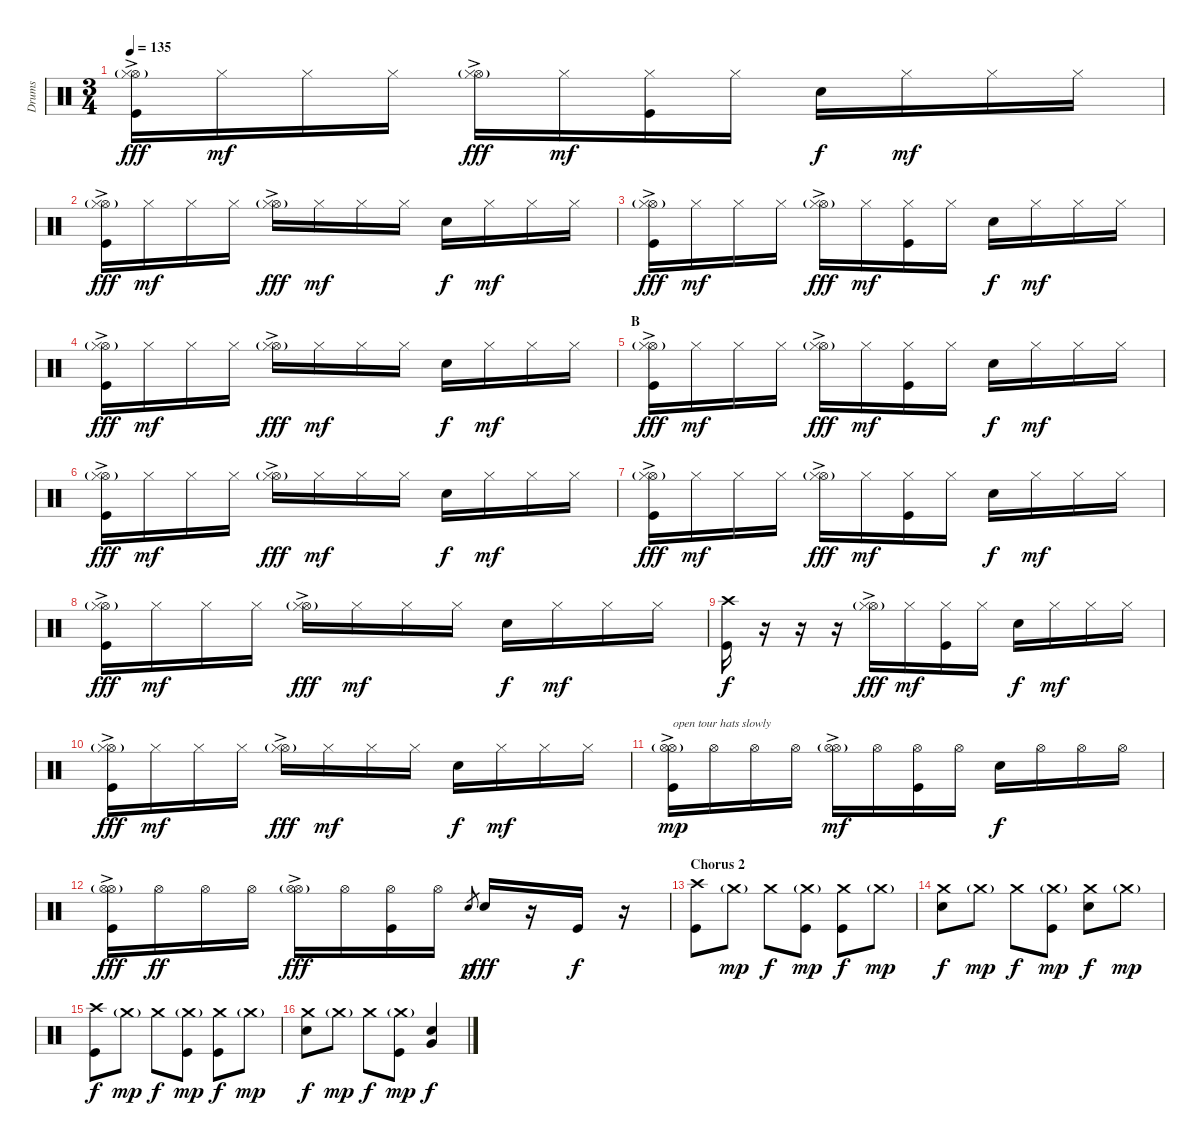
\track ("Drums" "Drums") {instrument percussion}
\staff {score}
\articulation defaults
\ts (3 4)
\tempo 135
\clef neutral
\ks c
("Hi-Hat (open)"{g} "Hi-Hat (closed)"{ac} "Kick (hit)").16{dy fff} "Hi-Hat (closed)".16{dy mf} "Hi-Hat (closed)".16 "Hi-Hat (closed)".16 ("Hi-Hat (open)"{g} "Hi-Hat (closed)"{ac}).16{dy fff} "Hi-Hat (closed)".16{dy mf} ("Hi-Hat (closed)" "Kick (hit)").16 "Hi-Hat (closed)".16 "Snare (hit) 2".16{dy f} "Hi-Hat (closed)".16{dy mf} "Hi-Hat (closed)".16 "Hi-Hat (closed)".16 |
("Hi-Hat (open)"{g} "Hi-Hat (closed)"{ac} "Kick (hit)").16{dy fff} "Hi-Hat (closed)".16{dy mf} "Hi-Hat (closed)".16 "Hi-Hat (closed)".16 ("Hi-Hat (open)"{g} "Hi-Hat (closed)"{ac}).16{dy fff} "Hi-Hat (closed)".16{dy mf} "Hi-Hat (closed)".16 "Hi-Hat (closed)".16 "Snare (hit) 2".16{dy f} "Hi-Hat (closed)".16{dy mf} "Hi-Hat (closed)".16 "Hi-Hat (closed)".16 |
("Hi-Hat (open)"{g} "Hi-Hat (closed)"{ac} "Kick (hit)").16{dy fff} "Hi-Hat (closed)".16{dy mf} "Hi-Hat (closed)".16 "Hi-Hat (closed)".16 ("Hi-Hat (open)"{g} "Hi-Hat (closed)"{ac}).16{dy fff} "Hi-Hat (closed)".16{dy mf} ("Hi-Hat (closed)" "Kick (hit)").16 "Hi-Hat (closed)".16 "Snare (hit) 2".16{dy f} "Hi-Hat (closed)".16{dy mf} "Hi-Hat (closed)".16 "Hi-Hat (closed)".16 |
("Hi-Hat (open)"{g} "Hi-Hat (closed)"{ac} "Kick (hit)").16{dy fff} "Hi-Hat (closed)".16{dy mf} "Hi-Hat (closed)".16 "Hi-Hat (closed)".16 ("Hi-Hat (open)"{g} "Hi-Hat (closed)"{ac}).16{dy fff} "Hi-Hat (closed)".16{dy mf} "Hi-Hat (closed)".16 "Hi-Hat (closed)".16 "Snare (hit) 2".16{dy f} "Hi-Hat (closed)".16{dy mf} "Hi-Hat (closed)".16 "Hi-Hat (closed)".16 |
\section ("" "B")
("Hi-Hat (open)"{g} "Hi-Hat (closed)"{ac} "Kick (hit)").16{dy fff} "Hi-Hat (closed)".16{dy mf} "Hi-Hat (closed)".16 "Hi-Hat (closed)".16 ("Hi-Hat (open)"{g} "Hi-Hat (closed)"{ac}).16{dy fff} "Hi-Hat (closed)".16{dy mf} ("Hi-Hat (closed)" "Kick (hit)").16 "Hi-Hat (closed)".16 "Snare (hit) 2".16{dy f} "Hi-Hat (closed)".16{dy mf} "Hi-Hat (closed)".16 "Hi-Hat (closed)".16 |
("Hi-Hat (open)"{g} "Hi-Hat (closed)"{ac} "Kick (hit)").16{dy fff} "Hi-Hat (closed)".16{dy mf} "Hi-Hat (closed)".16 "Hi-Hat (closed)".16 ("Hi-Hat (open)"{g} "Hi-Hat (closed)"{ac}).16{dy fff} "Hi-Hat (closed)".16{dy mf} "Hi-Hat (closed)".16 "Hi-Hat (closed)".16 "Snare (hit) 2".16{dy f} "Hi-Hat (closed)".16{dy mf} "Hi-Hat (closed)".16 "Hi-Hat (closed)".16 |
("Hi-Hat (open)"{g} "Hi-Hat (closed)"{ac} "Kick (hit)").16{dy fff} "Hi-Hat (closed)".16{dy mf} "Hi-Hat (closed)".16 "Hi-Hat (closed)".16 ("Hi-Hat (open)"{g} "Hi-Hat (closed)"{ac}).16{dy fff} "Hi-Hat (closed)".16{dy mf} ("Hi-Hat (closed)" "Kick (hit)").16 "Hi-Hat (closed)".16 "Snare (hit) 2".16{dy f} "Hi-Hat (closed)".16{dy mf} "Hi-Hat (closed)".16 "Hi-Hat (closed)".16 |
("Hi-Hat (open)"{g} "Hi-Hat (closed)"{ac} "Kick (hit)").16{dy fff} "Hi-Hat (closed)".16{dy mf} "Hi-Hat (closed)".16 "Hi-Hat (closed)".16 ("Hi-Hat (open)"{g} "Hi-Hat (closed)"{ac}).16{dy fff} "Hi-Hat (closed)".16{dy mf} "Hi-Hat (closed)".16 "Hi-Hat (closed)".16 "Snare (hit) 2".16{dy f} "Hi-Hat (closed)".16{dy mf} "Hi-Hat (closed)".16 "Hi-Hat (closed)".16 |
("Crash high (hit)" "Kick (hit)").16{dy f} r.16 r.16 r.16 ("Hi-Hat (open)"{g} "Hi-Hat (closed)"{ac}).16{dy fff} "Hi-Hat (closed)".16{dy mf} ("Hi-Hat (closed)" "Kick (hit)").16 "Hi-Hat (closed)".16 "Snare (hit) 2".16{dy f} "Hi-Hat (closed)".16{dy mf} "Hi-Hat (closed)".16 "Hi-Hat (closed)".16 |
("Hi-Hat (open)"{g} "Hi-Hat (closed)"{ac} "Kick (hit)").16{dy fff} "Hi-Hat (closed)".16{dy mf} "Hi-Hat (closed)".16 "Hi-Hat (closed)".16 ("Hi-Hat (open)"{g} "Hi-Hat (closed)"{ac}).16{dy fff} "Hi-Hat (closed)".16{dy mf} "Hi-Hat (closed)".16 "Hi-Hat (closed)".16 "Snare (hit) 2".16{dy f} "Hi-Hat (closed)".16{dy mf} "Hi-Hat (closed)".16 "Hi-Hat (closed)".16 |
("Hi-Hat (open)"{g} "Hi-Hat (open)"{ac} "Kick (hit)").16{txt "open tour hats slowly" dy mp} "Hi-Hat (open)".16 "Hi-Hat (open)".16 "Hi-Hat (open)".16 ("Hi-Hat (open)"{g} "Hi-Hat (open)"{ac}).16{dy mf} "Hi-Hat (open)".16 ("Hi-Hat (open)" "Kick (hit)").16 "Hi-Hat (open)".16 "Snare (hit) 2".16{dy f} "Hi-Hat (open)".16 "Hi-Hat (open)".16 "Hi-Hat (open)".16 |
("Hi-Hat (open)"{g} "Hi-Hat (open)"{ac} "Kick (hit)").16{dy fff} "Hi-Hat (open)".16{dy ff} "Hi-Hat (open)".16 "Hi-Hat (open)".16 ("Hi-Hat (open)"{g} "Hi-Hat (open)"{ac}).16{dy fff} "Hi-Hat (open)".16 ("Hi-Hat (open)" "Kick (hit)").16 "Hi-Hat (open)".16 "Snare (hit) 2".8{gr dy p} "Snare (hit) 2".16{dy fff} r.16 "Kick (hit)".16{dy f} r.16 |
\section ("" "Chorus 2")
("Crash high (hit)" "Kick (hit)").8 "Crash medium (hit)"{g}.8{dy mp} "Crash medium (hit)".8{dy f} ("Crash medium (hit)"{g} "Kick (hit)").8{dy mp} ("Crash medium (hit)" "Kick (hit)").8{dy f} "Crash medium (hit)"{g}.8{dy mp} |
("Crash medium (hit)" "Snare (hit) 2").8{dy f} "Crash medium (hit)"{g}.8{dy mp} "Crash medium (hit)".8{dy f} ("Crash medium (hit)"{g} "Kick (hit)").8{dy mp} ("Crash medium (hit)" "Snare (hit) 2").8{dy f} "Crash medium (hit)"{g}.8{dy mp} |
("Crash high (hit)" "Kick (hit)").8{dy f} "Crash medium (hit)"{g}.8{dy mp} "Crash medium (hit)".8{dy f} ("Crash medium (hit)"{g} "Kick (hit)").8{dy mp} ("Crash medium (hit)" "Kick (hit)").8{dy f} "Crash medium (hit)"{g}.8{dy mp} |
("Crash medium (hit)" "Snare (hit) 2").8{dy f} "Crash medium (hit)"{g}.8{dy mp} "Crash medium (hit)".8{dy f} ("Crash medium (hit)"{g} "Kick (hit)").8{dy mp} ("Very Low Tom (hit)" "Snare (hit) 2").4{dy f}
